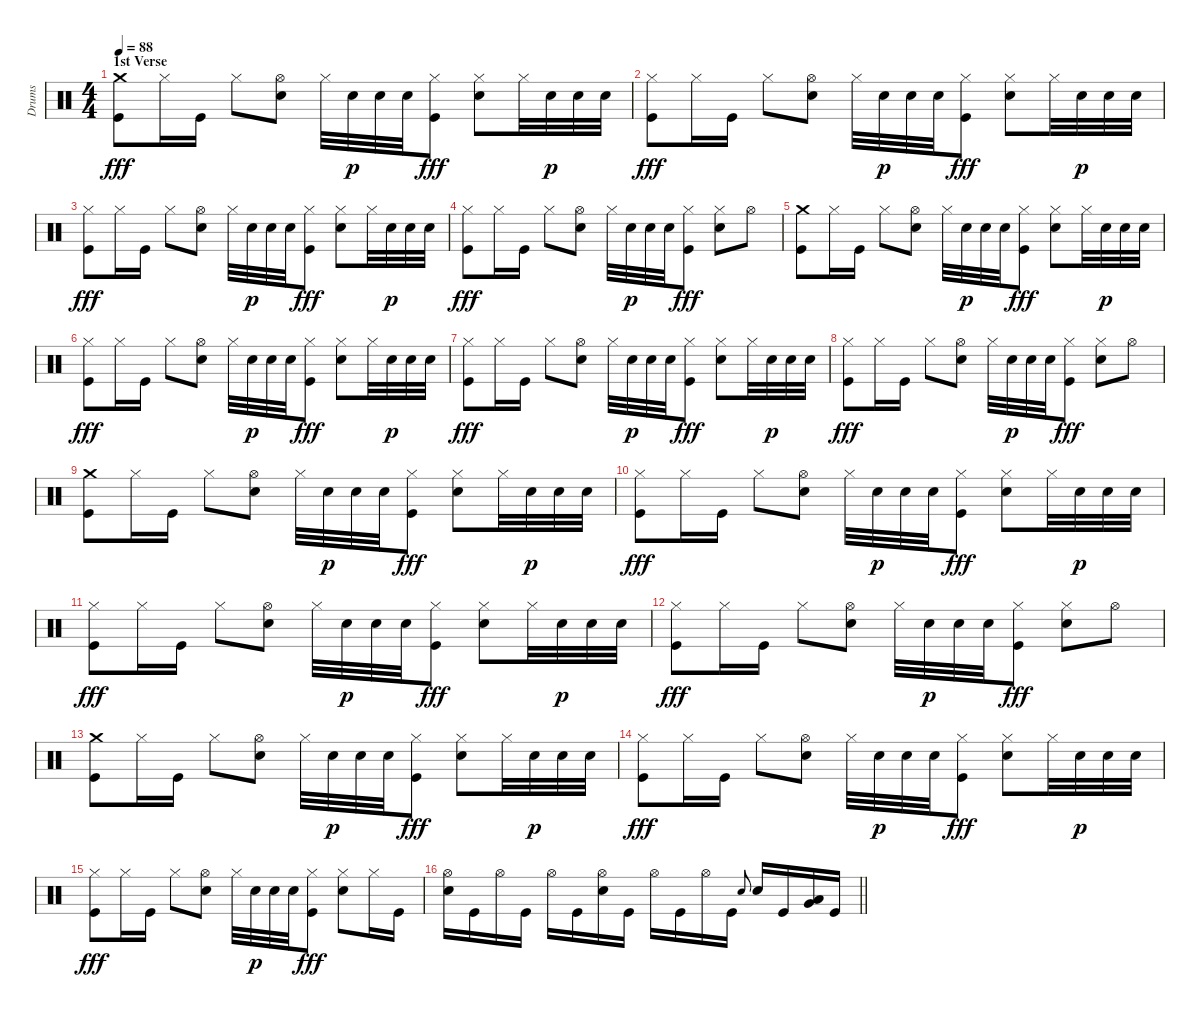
\track ("Drums" "Drums") {instrument percussion}
\staff {score}
\articulation defaults
\ts (4 4)
\section ("" "1st Verse")
\tempo 88
\clef neutral
\ks c
("Crash medium (hit)" "Kick (hit)").8{dy fff} "Hi-Hat (closed)".16 "Kick (hit)".16 "Hi-Hat (closed)".8 ("Hi-Hat (open)" "Snare (hit) 2").8 "Hi-Hat (closed)".32 "Snare (hit) 2".32{dy p} "Snare (hit) 2".32 "Snare (hit) 2".32 ("Hi-Hat (closed)" "Kick (hit)").8{dy fff} ("Hi-Hat (closed)" "Snare (hit) 2").8 "Hi-Hat (closed)".32 "Snare (hit) 2".32{dy p} "Snare (hit) 2".32 "Snare (hit) 2".32 |
("Hi-Hat (closed)" "Kick (hit)").8{dy fff} "Hi-Hat (closed)".16 "Kick (hit)".16 "Hi-Hat (closed)".8 ("Hi-Hat (open)" "Snare (hit) 2").8 "Hi-Hat (closed)".32 "Snare (hit) 2".32{dy p} "Snare (hit) 2".32 "Snare (hit) 2".32 ("Hi-Hat (closed)" "Kick (hit)").8{dy fff} ("Hi-Hat (closed)" "Snare (hit) 2").8 "Hi-Hat (closed)".32 "Snare (hit) 2".32{dy p} "Snare (hit) 2".32 "Snare (hit) 2".32 |
("Hi-Hat (closed)" "Kick (hit)").8{dy fff} "Hi-Hat (closed)".16 "Kick (hit)".16 "Hi-Hat (closed)".8 ("Hi-Hat (open)" "Snare (hit) 2").8 "Hi-Hat (closed)".32 "Snare (hit) 2".32{dy p} "Snare (hit) 2".32 "Snare (hit) 2".32 ("Hi-Hat (closed)" "Kick (hit)").8{dy fff} ("Hi-Hat (closed)" "Snare (hit) 2").8 "Hi-Hat (closed)".32 "Snare (hit) 2".32{dy p} "Snare (hit) 2".32 "Snare (hit) 2".32 |
("Hi-Hat (closed)" "Kick (hit)").8{dy fff} "Hi-Hat (closed)".16 "Kick (hit)".16 "Hi-Hat (closed)".8 ("Hi-Hat (open)" "Snare (hit) 2").8 "Hi-Hat (closed)".32 "Snare (hit) 2".32{dy p} "Snare (hit) 2".32 "Snare (hit) 2".32 ("Hi-Hat (closed)" "Kick (hit)").8{dy fff} ("Hi-Hat (closed)" "Snare (hit) 2").8 "Hi-Hat (open)".8 |
("Crash medium (hit)" "Kick (hit)").8 "Hi-Hat (closed)".16 "Kick (hit)".16 "Hi-Hat (closed)".8 ("Hi-Hat (open)" "Snare (hit) 2").8 "Hi-Hat (closed)".32 "Snare (hit) 2".32{dy p} "Snare (hit) 2".32 "Snare (hit) 2".32 ("Hi-Hat (closed)" "Kick (hit)").8{dy fff} ("Hi-Hat (closed)" "Snare (hit) 2").8 "Hi-Hat (closed)".32 "Snare (hit) 2".32{dy p} "Snare (hit) 2".32 "Snare (hit) 2".32 |
("Hi-Hat (closed)" "Kick (hit)").8{dy fff} "Hi-Hat (closed)".16 "Kick (hit)".16 "Hi-Hat (closed)".8 ("Hi-Hat (open)" "Snare (hit) 2").8 "Hi-Hat (closed)".32 "Snare (hit) 2".32{dy p} "Snare (hit) 2".32 "Snare (hit) 2".32 ("Hi-Hat (closed)" "Kick (hit)").8{dy fff} ("Hi-Hat (closed)" "Snare (hit) 2").8 "Hi-Hat (closed)".32 "Snare (hit) 2".32{dy p} "Snare (hit) 2".32 "Snare (hit) 2".32 |
("Hi-Hat (closed)" "Kick (hit)").8{dy fff} "Hi-Hat (closed)".16 "Kick (hit)".16 "Hi-Hat (closed)".8 ("Hi-Hat (open)" "Snare (hit) 2").8 "Hi-Hat (closed)".32 "Snare (hit) 2".32{dy p} "Snare (hit) 2".32 "Snare (hit) 2".32 ("Hi-Hat (closed)" "Kick (hit)").8{dy fff} ("Hi-Hat (closed)" "Snare (hit) 2").8 "Hi-Hat (closed)".32 "Snare (hit) 2".32{dy p} "Snare (hit) 2".32 "Snare (hit) 2".32 |
("Hi-Hat (closed)" "Kick (hit)").8{dy fff} "Hi-Hat (closed)".16 "Kick (hit)".16 "Hi-Hat (closed)".8 ("Hi-Hat (open)" "Snare (hit) 2").8 "Hi-Hat (closed)".32 "Snare (hit) 2".32{dy p} "Snare (hit) 2".32 "Snare (hit) 2".32 ("Hi-Hat (closed)" "Kick (hit)").8{dy fff} ("Hi-Hat (closed)" "Snare (hit) 2").8 "Hi-Hat (open)".8 |
("Crash medium (hit)" "Kick (hit)").8 "Hi-Hat (closed)".16 "Kick (hit)".16 "Hi-Hat (closed)".8 ("Hi-Hat (open)" "Snare (hit) 2").8 "Hi-Hat (closed)".32 "Snare (hit) 2".32{dy p} "Snare (hit) 2".32 "Snare (hit) 2".32 ("Hi-Hat (closed)" "Kick (hit)").8{dy fff} ("Hi-Hat (closed)" "Snare (hit) 2").8 "Hi-Hat (closed)".32 "Snare (hit) 2".32{dy p} "Snare (hit) 2".32 "Snare (hit) 2".32 |
("Hi-Hat (closed)" "Kick (hit)").8{dy fff} "Hi-Hat (closed)".16 "Kick (hit)".16 "Hi-Hat (closed)".8 ("Hi-Hat (open)" "Snare (hit) 2").8 "Hi-Hat (closed)".32 "Snare (hit) 2".32{dy p} "Snare (hit) 2".32 "Snare (hit) 2".32 ("Hi-Hat (closed)" "Kick (hit)").8{dy fff} ("Hi-Hat (closed)" "Snare (hit) 2").8 "Hi-Hat (closed)".32 "Snare (hit) 2".32{dy p} "Snare (hit) 2".32 "Snare (hit) 2".32 |
("Hi-Hat (closed)" "Kick (hit)").8{dy fff} "Hi-Hat (closed)".16 "Kick (hit)".16 "Hi-Hat (closed)".8 ("Hi-Hat (open)" "Snare (hit) 2").8 "Hi-Hat (closed)".32 "Snare (hit) 2".32{dy p} "Snare (hit) 2".32 "Snare (hit) 2".32 ("Hi-Hat (closed)" "Kick (hit)").8{dy fff} ("Hi-Hat (closed)" "Snare (hit) 2").8 "Hi-Hat (closed)".32 "Snare (hit) 2".32{dy p} "Snare (hit) 2".32 "Snare (hit) 2".32 |
("Hi-Hat (closed)" "Kick (hit)").8{dy fff} "Hi-Hat (closed)".16 "Kick (hit)".16 "Hi-Hat (closed)".8 ("Hi-Hat (open)" "Snare (hit) 2").8 "Hi-Hat (closed)".32 "Snare (hit) 2".32{dy p} "Snare (hit) 2".32 "Snare (hit) 2".32 ("Hi-Hat (closed)" "Kick (hit)").8{dy fff} ("Hi-Hat (closed)" "Snare (hit) 2").8 "Hi-Hat (open)".8 |
("Crash medium (hit)" "Kick (hit)").8 "Hi-Hat (closed)".16 "Kick (hit)".16 "Hi-Hat (closed)".8 ("Hi-Hat (open)" "Snare (hit) 2").8 "Hi-Hat (closed)".32 "Snare (hit) 2".32{dy p} "Snare (hit) 2".32 "Snare (hit) 2".32 ("Hi-Hat (closed)" "Kick (hit)").8{dy fff} ("Hi-Hat (closed)" "Snare (hit) 2").8 "Hi-Hat (closed)".32 "Snare (hit) 2".32{dy p} "Snare (hit) 2".32 "Snare (hit) 2".32 |
("Hi-Hat (closed)" "Kick (hit)").8{dy fff} "Hi-Hat (closed)".16 "Kick (hit)".16 "Hi-Hat (closed)".8 ("Hi-Hat (open)" "Snare (hit) 2").8 "Hi-Hat (closed)".32 "Snare (hit) 2".32{dy p} "Snare (hit) 2".32 "Snare (hit) 2".32 ("Hi-Hat (closed)" "Kick (hit)").8{dy fff} ("Hi-Hat (closed)" "Snare (hit) 2").8 "Hi-Hat (closed)".32 "Snare (hit) 2".32{dy p} "Snare (hit) 2".32 "Snare (hit) 2".32 |
("Hi-Hat (closed)" "Kick (hit)").8{dy fff} "Hi-Hat (closed)".16 "Kick (hit)".16 "Hi-Hat (closed)".8 ("Hi-Hat (open)" "Snare (hit) 2").8 "Hi-Hat (closed)".32 "Snare (hit) 2".32{dy p} "Snare (hit) 2".32 "Snare (hit) 2".32 ("Hi-Hat (closed)" "Kick (hit)").8{dy fff} ("Hi-Hat (closed)" "Snare (hit) 2").8 "Hi-Hat (closed)".16 "Kick (hit)".16 |
\barLineRight lightlight
("Hi-Hat (open)" "Snare (hit) 2").16 "Kick (hit)".16 "Hi-Hat (open)".16 "Kick (hit)".16 "Hi-Hat (open)".16 "Kick (hit)".16 ("Hi-Hat (open)" "Snare (hit) 2").16 "Kick (hit)".16 "Hi-Hat (open)".16 "Kick (hit)".16 "Hi-Hat (open)".16 "Kick (hit)".16 "Snare (hit) 2".8{gr onbeat} "Snare (hit) 2".16 "Kick (hit)".16 ("Very Low Tom (hit)" "Low Floor Tom (hit)").16 "Kick (hit)".16
